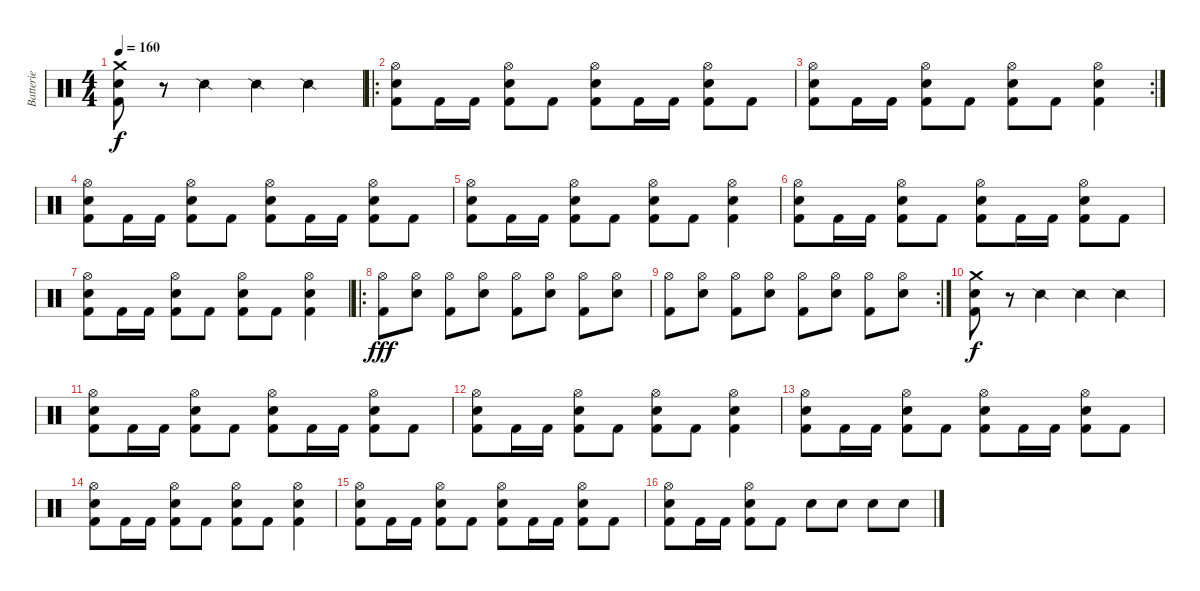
\track ("Batterie" "Batterie") {instrument percussion}
\staff {score}
\articulation defaults
\ts (4 4)
\tempo 160
\clef neutral
\ks c
("Kick (hit) 2" "Electric Snare (hit)" "Crash medium (hit)").8{dy f} r.8 "Snare (side stick) 2".4 "Snare (side stick) 2".4 "Snare (side stick) 2".4 |
\ro
("Kick (hit) 2" "Electric Snare (hit)" "Hi-Hat (open)").8 "Kick (hit) 2".16 "Kick (hit) 2".16 ("Kick (hit) 2" "Electric Snare (hit)" "Hi-Hat (open)").8 "Kick (hit) 2".8 ("Kick (hit) 2" "Electric Snare (hit)" "Hi-Hat (open)").8 "Kick (hit) 2".16 "Kick (hit) 2".16 ("Kick (hit) 2" "Electric Snare (hit)" "Hi-Hat (open)").8 "Kick (hit) 2".8 |
\rc 2
("Kick (hit) 2" "Electric Snare (hit)" "Hi-Hat (open)").8 "Kick (hit) 2".16 "Kick (hit) 2".16 ("Kick (hit) 2" "Electric Snare (hit)" "Hi-Hat (open)").8 "Kick (hit) 2".8 ("Kick (hit) 2" "Electric Snare (hit)" "Hi-Hat (open)").8 "Kick (hit) 2".8 ("Kick (hit) 2" "Electric Snare (hit)" "Hi-Hat (open)").4 |
("Kick (hit) 2" "Electric Snare (hit)" "Hi-Hat (open)").8 "Kick (hit) 2".16 "Kick (hit) 2".16 ("Kick (hit) 2" "Electric Snare (hit)" "Hi-Hat (open)").8 "Kick (hit) 2".8 ("Kick (hit) 2" "Electric Snare (hit)" "Hi-Hat (open)").8 "Kick (hit) 2".16 "Kick (hit) 2".16 ("Kick (hit) 2" "Electric Snare (hit)" "Hi-Hat (open)").8 "Kick (hit) 2".8 |
("Kick (hit) 2" "Electric Snare (hit)" "Hi-Hat (open)").8 "Kick (hit) 2".16 "Kick (hit) 2".16 ("Kick (hit) 2" "Electric Snare (hit)" "Hi-Hat (open)").8 "Kick (hit) 2".8 ("Kick (hit) 2" "Electric Snare (hit)" "Hi-Hat (open)").8 "Kick (hit) 2".8 ("Kick (hit) 2" "Electric Snare (hit)" "Hi-Hat (open)").4 |
("Kick (hit) 2" "Electric Snare (hit)" "Hi-Hat (open)").8 "Kick (hit) 2".16 "Kick (hit) 2".16 ("Kick (hit) 2" "Electric Snare (hit)" "Hi-Hat (open)").8 "Kick (hit) 2".8 ("Kick (hit) 2" "Electric Snare (hit)" "Hi-Hat (open)").8 "Kick (hit) 2".16 "Kick (hit) 2".16 ("Kick (hit) 2" "Electric Snare (hit)" "Hi-Hat (open)").8 "Kick (hit) 2".8 |
("Kick (hit) 2" "Electric Snare (hit)" "Hi-Hat (open)").8 "Kick (hit) 2".16 "Kick (hit) 2".16 ("Kick (hit) 2" "Electric Snare (hit)" "Hi-Hat (open)").8 "Kick (hit) 2".8 ("Kick (hit) 2" "Electric Snare (hit)" "Hi-Hat (open)").8 "Kick (hit) 2".8 ("Kick (hit) 2" "Electric Snare (hit)" "Hi-Hat (open)").4 |
\ro
("Kick (hit) 2" "Hi-Hat (open)").8{dy fff} ("Electric Snare (hit)" "Hi-Hat (open)").8 ("Kick (hit) 2" "Hi-Hat (open)").8 ("Electric Snare (hit)" "Hi-Hat (open)").8 ("Kick (hit) 2" "Hi-Hat (open)").8 ("Electric Snare (hit)" "Hi-Hat (open)").8 ("Kick (hit) 2" "Hi-Hat (open)").8 ("Electric Snare (hit)" "Hi-Hat (open)").8 |
\rc 2
("Kick (hit) 2" "Hi-Hat (open)").8 ("Electric Snare (hit)" "Hi-Hat (open)").8 ("Kick (hit) 2" "Hi-Hat (open)").8 ("Electric Snare (hit)" "Hi-Hat (open)").8 ("Kick (hit) 2" "Hi-Hat (open)").8 ("Electric Snare (hit)" "Hi-Hat (open)").8 ("Kick (hit) 2" "Hi-Hat (open)").8 ("Electric Snare (hit)" "Hi-Hat (open)").8 |
("Kick (hit) 2" "Electric Snare (hit)" "Crash medium (hit)").8{dy f} r.8 "Snare (side stick) 2".4 "Snare (side stick) 2".4 "Snare (side stick) 2".4 |
("Kick (hit) 2" "Electric Snare (hit)" "Hi-Hat (open)").8 "Kick (hit) 2".16 "Kick (hit) 2".16 ("Kick (hit) 2" "Electric Snare (hit)" "Hi-Hat (open)").8 "Kick (hit) 2".8 ("Kick (hit) 2" "Electric Snare (hit)" "Hi-Hat (open)").8 "Kick (hit) 2".16 "Kick (hit) 2".16 ("Kick (hit) 2" "Electric Snare (hit)" "Hi-Hat (open)").8 "Kick (hit) 2".8 |
("Kick (hit) 2" "Electric Snare (hit)" "Hi-Hat (open)").8 "Kick (hit) 2".16 "Kick (hit) 2".16 ("Kick (hit) 2" "Electric Snare (hit)" "Hi-Hat (open)").8 "Kick (hit) 2".8 ("Kick (hit) 2" "Electric Snare (hit)" "Hi-Hat (open)").8 "Kick (hit) 2".8 ("Kick (hit) 2" "Electric Snare (hit)" "Hi-Hat (open)").4 |
("Kick (hit) 2" "Electric Snare (hit)" "Hi-Hat (open)").8 "Kick (hit) 2".16 "Kick (hit) 2".16 ("Kick (hit) 2" "Electric Snare (hit)" "Hi-Hat (open)").8 "Kick (hit) 2".8 ("Kick (hit) 2" "Electric Snare (hit)" "Hi-Hat (open)").8 "Kick (hit) 2".16 "Kick (hit) 2".16 ("Kick (hit) 2" "Electric Snare (hit)" "Hi-Hat (open)").8 "Kick (hit) 2".8 |
("Kick (hit) 2" "Electric Snare (hit)" "Hi-Hat (open)").8 "Kick (hit) 2".16 "Kick (hit) 2".16 ("Kick (hit) 2" "Electric Snare (hit)" "Hi-Hat (open)").8 "Kick (hit) 2".8 ("Kick (hit) 2" "Electric Snare (hit)" "Hi-Hat (open)").8 "Kick (hit) 2".8 ("Kick (hit) 2" "Electric Snare (hit)" "Hi-Hat (open)").4 |
("Kick (hit) 2" "Electric Snare (hit)" "Hi-Hat (open)").8 "Kick (hit) 2".16 "Kick (hit) 2".16 ("Kick (hit) 2" "Electric Snare (hit)" "Hi-Hat (open)").8 "Kick (hit) 2".8 ("Kick (hit) 2" "Electric Snare (hit)" "Hi-Hat (open)").8 "Kick (hit) 2".16 "Kick (hit) 2".16 ("Kick (hit) 2" "Electric Snare (hit)" "Hi-Hat (open)").8 "Kick (hit) 2".8 |
("Kick (hit) 2" "Electric Snare (hit)" "Hi-Hat (open)").8 "Kick (hit) 2".16 "Kick (hit) 2".16 ("Kick (hit) 2" "Electric Snare (hit)" "Hi-Hat (open)").8 "Kick (hit) 2".8 "Electric Snare (hit)".8 "Electric Snare (hit)".8 "Electric Snare (hit)".8 "Electric Snare (hit)".8
